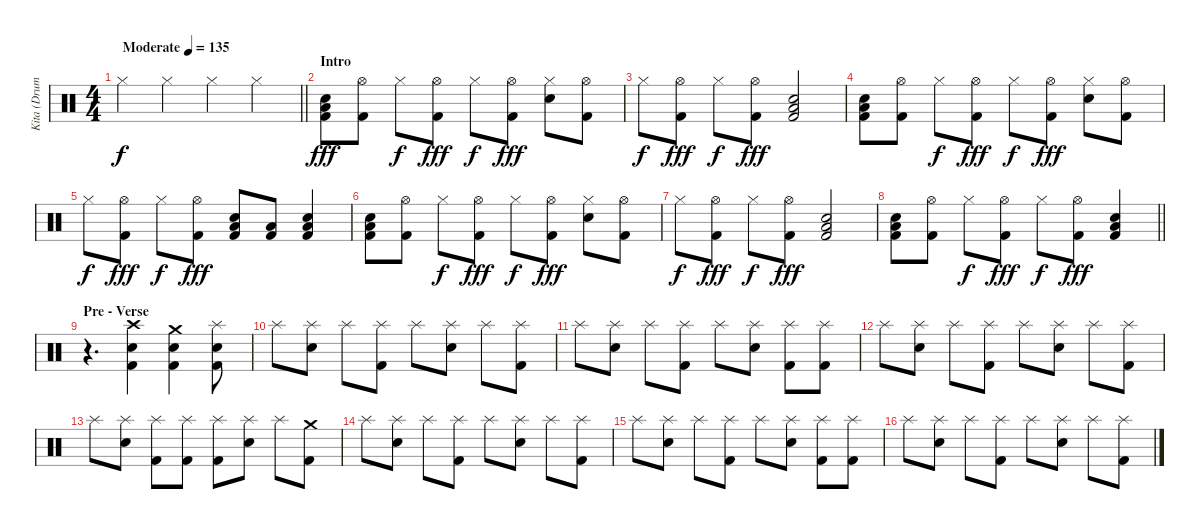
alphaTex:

\track ("Kita (Drums)" "Kita (Drum") {instrument percussion}
\staff {score}
\articulation defaults
\ts (4 4)
\tempo (135 "Moderate")
\clef neutral
\barLineRight lightlight
\ks c "Hi-Hat (closed)".4{dy f} "Hi-Hat (closed)".4 "Hi-Hat (closed)".4 "Hi-Hat (closed)".4
|
\section ("" "Intro")
("Low Floor Tom (hit)" "Electric Snare (hit)" "Kick (hit) 2").8{dy fff} ("Hi-Hat (open)" "Kick (hit) 2").8 "Hi-Hat (closed)".8{dy f} ("Hi-Hat (open)" "Kick (hit) 2").8{dy fff} "Hi-Hat (closed)".8{dy f} ("Hi-Hat (open)" "Kick (hit) 2").8{dy fff} ("Electric Snare (hit)" "Hi-Hat (closed)").8 ("Hi-Hat (open)" "Kick (hit) 2").8 |
"Hi-Hat (closed)".8{dy f} ("Hi-Hat (open)" "Kick (hit) 2").8{dy fff} "Hi-Hat (closed)".8{dy f} ("Hi-Hat (open)" "Kick (hit) 2").8{dy fff} ("Low Floor Tom (hit)" "Electric Snare (hit)" "Kick (hit) 2").2 |
("Low Floor Tom (hit)" "Electric Snare (hit)" "Kick (hit) 2").8 ("Hi-Hat (open)" "Kick (hit) 2").8 "Hi-Hat (closed)".8{dy f} ("Hi-Hat (open)" "Kick (hit) 2").8{dy fff} "Hi-Hat (closed)".8{dy f} ("Hi-Hat (open)" "Kick (hit) 2").8{dy fff} ("Electric Snare (hit)" "Hi-Hat (closed)").8 ("Hi-Hat (open)" "Kick (hit) 2").8 |
"Hi-Hat (closed)".8{dy f} ("Hi-Hat (open)" "Kick (hit) 2").8{dy fff} "Hi-Hat (closed)".8{dy f} ("Hi-Hat (open)" "Kick (hit) 2").8{dy fff} ("Low Floor Tom (hit)" "Electric Snare (hit)" "Kick (hit) 2").8 ("Low Floor Tom (hit)" "Kick (hit) 2").8 ("Low Floor Tom (hit)" "Electric Snare (hit)" "Kick (hit) 2").4 |
("Low Floor Tom (hit)" "Electric Snare (hit)" "Kick (hit) 2").8 ("Hi-Hat (open)" "Kick (hit) 2").8 "Hi-Hat (closed)".8{dy f} ("Hi-Hat (open)" "Kick (hit) 2").8{dy fff} "Hi-Hat (closed)".8{dy f} ("Hi-Hat (open)" "Kick (hit) 2").8{dy fff} ("Electric Snare (hit)" "Hi-Hat (closed)").8 ("Hi-Hat (open)" "Kick (hit) 2").8 |
"Hi-Hat (closed)".8{dy f} ("Hi-Hat (open)" "Kick (hit) 2").8{dy fff} "Hi-Hat (closed)".8{dy f} ("Hi-Hat (open)" "Kick (hit) 2").8{dy fff} ("Low Floor Tom (hit)" "Electric Snare (hit)" "Kick (hit) 2").2 |
\barLineRight lightlight
("Low Floor Tom (hit)" "Electric Snare (hit)" "Kick (hit) 2").8 ("Hi-Hat (open)" "Kick (hit) 2").8 "Hi-Hat (closed)".8{dy f} ("Hi-Hat (open)" "Kick (hit) 2").8{dy fff} "Hi-Hat (closed)".8{dy f} ("Hi-Hat (open)" "Kick (hit) 2").8{dy fff} ("Low Floor Tom (hit)" "Electric Snare (hit)" "Kick (hit) 2").4 |
\section ("" "Pre - Verse")
r.4{d} ("Crash high (hit)" "Electric Snare (hit)" "Kick (hit) 2").4 ("Crash medium (hit)" "Electric Snare (hit)" "Kick (hit) 2").4 ("Splash (hit)" "Electric Snare (hit)" "Kick (hit) 2").8 |
"Splash (hit)".8 ("Splash (hit)" "Electric Snare (hit)").8 "Splash (hit)".8 ("Splash (hit)" "Kick (hit) 2").8 "Splash (hit)".8 ("Splash (hit)" "Electric Snare (hit)").8 "Splash (hit)".8 ("Splash (hit)" "Kick (hit) 2").8 |
"Splash (hit)".8 ("Splash (hit)" "Electric Snare (hit)").8 "Splash (hit)".8 ("Splash (hit)" "Kick (hit) 2").8 "Splash (hit)".8 ("Splash (hit)" "Electric Snare (hit)").8 ("Splash (hit)" "Kick (hit) 2").8 ("Splash (hit)" "Kick (hit) 2").8 |
"Splash (hit)".8 ("Splash (hit)" "Electric Snare (hit)").8 "Splash (hit)".8 ("Splash (hit)" "Kick (hit) 2").8 "Splash (hit)".8 ("Splash (hit)" "Electric Snare (hit)").8 "Splash (hit)".8 ("Splash (hit)" "Kick (hit) 2").8 |
"Splash (hit)".8 ("Splash (hit)" "Electric Snare (hit)").8 ("Splash (hit)" "Kick (hit) 2").8 ("Splash (hit)" "Kick (hit) 2").8 ("Splash (hit)" "Kick (hit) 2").8 ("Splash (hit)" "Electric Snare (hit)").8 "Splash (hit)".8 ("Crash medium (hit)" "Kick (hit) 2").8 |
"Splash (hit)".8 ("Splash (hit)" "Electric Snare (hit)").8 "Splash (hit)".8 ("Splash (hit)" "Kick (hit) 2").8 "Splash (hit)".8 ("Splash (hit)" "Electric Snare (hit)").8 "Splash (hit)".8 ("Splash (hit)" "Kick (hit) 2").8 |
"Splash (hit)".8 ("Splash (hit)" "Electric Snare (hit)").8 "Splash (hit)".8 ("Splash (hit)" "Kick (hit) 2").8 "Splash (hit)".8 ("Splash (hit)" "Electric Snare (hit)").8 ("Splash (hit)" "Kick (hit) 2").8 ("Splash (hit)" "Kick (hit) 2").8 |
"Splash (hit)".8 ("Splash (hit)" "Electric Snare (hit)").8 "Splash (hit)".8 ("Splash (hit)" "Kick (hit) 2").8 "Splash (hit)".8 ("Splash (hit)" "Electric Snare (hit)").8 "Splash (hit)".8 ("Splash (hit)" "Kick (hit) 2").8
